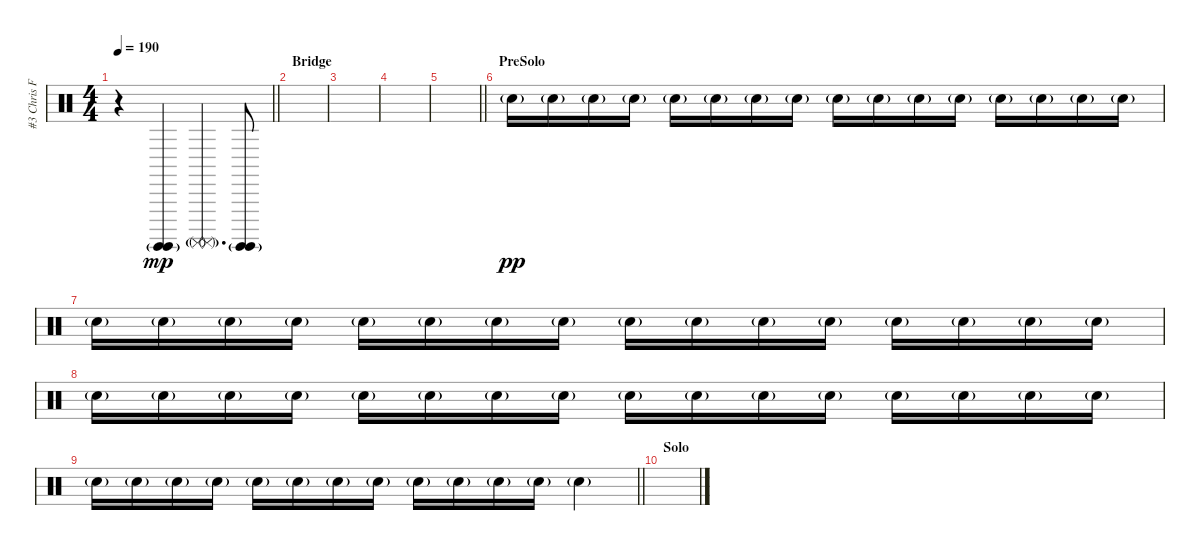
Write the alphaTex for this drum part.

\track ("#3 Chris Fehn" "#3 Chris F") {instrument percussion}
\staff {score}
\articulation defaults
\ts (4 4)
\tempo 190
\clef neutral
\barLineRight lightlight
\ks c
r.4{dy mp} ("Surdo (hit)"{g} "Surdo (hit)"{g}).4 ("Surdo (mute)"{g} "Surdo (mute)"{g}).4{d} ("Surdo (hit)"{g} "Surdo (hit)"{g}).8 |
\section ("" "Bridge")
|
|
|
\barLineRight lightlight
|
\section ("" "PreSolo")
"Electric Snare (hit)"{g}.16{dy pp} "Electric Snare (hit)"{g}.16 "Electric Snare (hit)"{g}.16 "Electric Snare (hit)"{g}.16 "Electric Snare (hit)"{g}.16 "Electric Snare (hit)"{g}.16 "Electric Snare (hit)"{g}.16 "Electric Snare (hit)"{g}.16 "Electric Snare (hit)"{g}.16 "Electric Snare (hit)"{g}.16 "Electric Snare (hit)"{g}.16 "Electric Snare (hit)"{g}.16 "Electric Snare (hit)"{g}.16 "Electric Snare (hit)"{g}.16 "Electric Snare (hit)"{g}.16 "Electric Snare (hit)"{g}.16 |
"Electric Snare (hit)"{g}.16 "Electric Snare (hit)"{g}.16 "Electric Snare (hit)"{g}.16 "Electric Snare (hit)"{g}.16 "Electric Snare (hit)"{g}.16 "Electric Snare (hit)"{g}.16 "Electric Snare (hit)"{g}.16 "Electric Snare (hit)"{g}.16 "Electric Snare (hit)"{g}.16 "Electric Snare (hit)"{g}.16 "Electric Snare (hit)"{g}.16 "Electric Snare (hit)"{g}.16 "Electric Snare (hit)"{g}.16 "Electric Snare (hit)"{g}.16 "Electric Snare (hit)"{g}.16 "Electric Snare (hit)"{g}.16 |
"Electric Snare (hit)"{g}.16 "Electric Snare (hit)"{g}.16 "Electric Snare (hit)"{g}.16 "Electric Snare (hit)"{g}.16 "Electric Snare (hit)"{g}.16 "Electric Snare (hit)"{g}.16 "Electric Snare (hit)"{g}.16 "Electric Snare (hit)"{g}.16 "Electric Snare (hit)"{g}.16 "Electric Snare (hit)"{g}.16 "Electric Snare (hit)"{g}.16 "Electric Snare (hit)"{g}.16 "Electric Snare (hit)"{g}.16 "Electric Snare (hit)"{g}.16 "Electric Snare (hit)"{g}.16 "Electric Snare (hit)"{g}.16 |
\barLineRight lightlight "Electric Snare (hit)"{g}.16 "Electric Snare (hit)"{g}.16 "Electric Snare (hit)"{g}.16 "Electric Snare (hit)"{g}.16 "Electric Snare (hit)"{g}.16 "Electric Snare (hit)"{g}.16 "Electric Snare (hit)"{g}.16 "Electric Snare (hit)"{g}.16 "Electric Snare (hit)"{g}.16 "Electric Snare (hit)"{g}.16 "Electric Snare (hit)"{g}.16 "Electric Snare (hit)"{g}.16 "Electric Snare (hit)"{g}.4
|
\section ("" "Solo")
